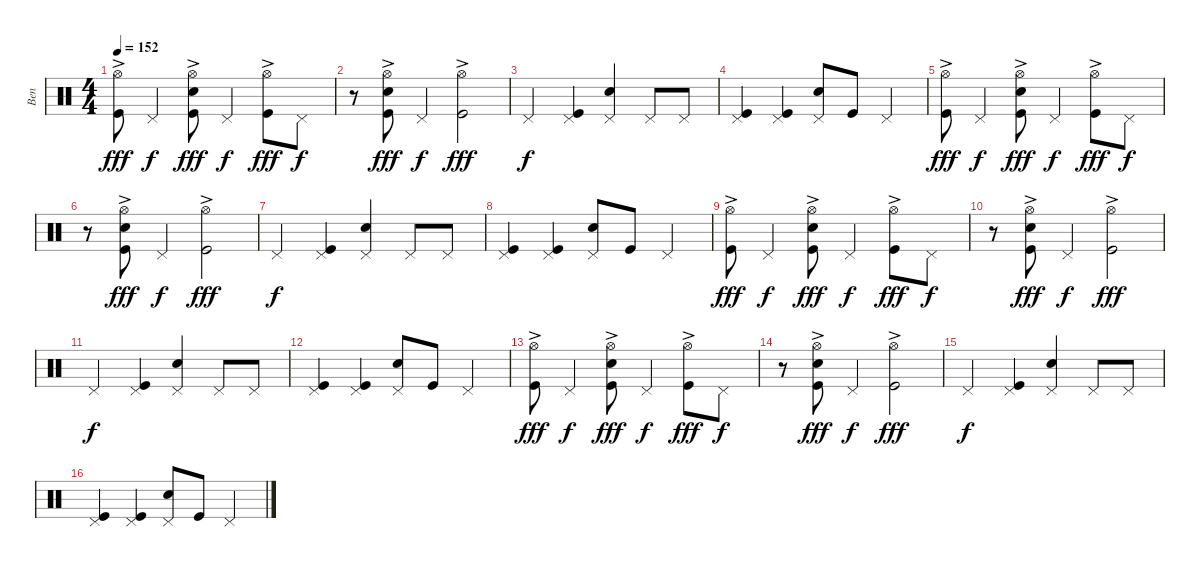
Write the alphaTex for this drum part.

\track ("Ben" "Ben") {instrument percussion}
\staff {score}
\articulation defaults
\ts (4 4)
\tempo 152
\clef neutral
\ks c
("Hi-Hat (open)" "Kick (hit)"{ac}).8{dy fff} "Pedal Hi-Hat (hit)".4{dy f} ("Hi-Hat (open)" "Electric Snare (hit)" "Kick (hit)"{ac}).8{dy fff} "Pedal Hi-Hat (hit)".4{dy f} ("Hi-Hat (open)" "Kick (hit)"{ac}).8{dy fff} "Pedal Hi-Hat (hit)".8{dy f} |
r.8 ("Hi-Hat (open)" "Electric Snare (hit)" "Kick (hit)"{ac}).8{dy fff} "Pedal Hi-Hat (hit)".4{dy f} ("Hi-Hat (open)" "Kick (hit)"{ac}).2{dy fff} |
"Pedal Hi-Hat (hit)".4{dy f} ("Pedal Hi-Hat (hit)" "Kick (hit)").4 ("Pedal Hi-Hat (hit)" "Electric Snare (hit)").4 "Pedal Hi-Hat (hit)".8 "Pedal Hi-Hat (hit)".8 |
("Pedal Hi-Hat (hit)" "Kick (hit)").4 ("Pedal Hi-Hat (hit)" "Kick (hit)").4 ("Pedal Hi-Hat (hit)" "Electric Snare (hit)").8 "Kick (hit)".8 "Pedal Hi-Hat (hit)".4 |
("Hi-Hat (open)" "Kick (hit)"{ac}).8{dy fff} "Pedal Hi-Hat (hit)".4{dy f} ("Hi-Hat (open)" "Electric Snare (hit)" "Kick (hit)"{ac}).8{dy fff} "Pedal Hi-Hat (hit)".4{dy f} ("Hi-Hat (open)" "Kick (hit)"{ac}).8{dy fff} "Pedal Hi-Hat (hit)".8{dy f} |
r.8 ("Hi-Hat (open)" "Electric Snare (hit)" "Kick (hit)"{ac}).8{dy fff} "Pedal Hi-Hat (hit)".4{dy f} ("Hi-Hat (open)" "Kick (hit)"{ac}).2{dy fff} |
"Pedal Hi-Hat (hit)".4{dy f} ("Pedal Hi-Hat (hit)" "Kick (hit)").4 ("Pedal Hi-Hat (hit)" "Electric Snare (hit)").4 "Pedal Hi-Hat (hit)".8 "Pedal Hi-Hat (hit)".8 |
("Pedal Hi-Hat (hit)" "Kick (hit)").4 ("Pedal Hi-Hat (hit)" "Kick (hit)").4 ("Pedal Hi-Hat (hit)" "Electric Snare (hit)").8 "Kick (hit)".8 "Pedal Hi-Hat (hit)".4 |
("Hi-Hat (open)" "Kick (hit)"{ac}).8{dy fff} "Pedal Hi-Hat (hit)".4{dy f} ("Hi-Hat (open)" "Electric Snare (hit)" "Kick (hit)"{ac}).8{dy fff} "Pedal Hi-Hat (hit)".4{dy f} ("Hi-Hat (open)" "Kick (hit)"{ac}).8{dy fff} "Pedal Hi-Hat (hit)".8{dy f} |
r.8 ("Hi-Hat (open)" "Electric Snare (hit)" "Kick (hit)"{ac}).8{dy fff} "Pedal Hi-Hat (hit)".4{dy f} ("Hi-Hat (open)" "Kick (hit)"{ac}).2{dy fff} |
"Pedal Hi-Hat (hit)".4{dy f} ("Pedal Hi-Hat (hit)" "Kick (hit)").4 ("Pedal Hi-Hat (hit)" "Electric Snare (hit)").4 "Pedal Hi-Hat (hit)".8 "Pedal Hi-Hat (hit)".8 |
("Pedal Hi-Hat (hit)" "Kick (hit)").4 ("Pedal Hi-Hat (hit)" "Kick (hit)").4 ("Pedal Hi-Hat (hit)" "Electric Snare (hit)").8 "Kick (hit)".8 "Pedal Hi-Hat (hit)".4 |
("Hi-Hat (open)" "Kick (hit)"{ac}).8{dy fff} "Pedal Hi-Hat (hit)".4{dy f} ("Hi-Hat (open)" "Electric Snare (hit)" "Kick (hit)"{ac}).8{dy fff} "Pedal Hi-Hat (hit)".4{dy f} ("Hi-Hat (open)" "Kick (hit)"{ac}).8{dy fff} "Pedal Hi-Hat (hit)".8{dy f} |
r.8 ("Hi-Hat (open)" "Electric Snare (hit)" "Kick (hit)"{ac}).8{dy fff} "Pedal Hi-Hat (hit)".4{dy f} ("Hi-Hat (open)" "Kick (hit)"{ac}).2{dy fff} |
"Pedal Hi-Hat (hit)".4{dy f} ("Pedal Hi-Hat (hit)" "Kick (hit)").4 ("Pedal Hi-Hat (hit)" "Electric Snare (hit)").4 "Pedal Hi-Hat (hit)".8 "Pedal Hi-Hat (hit)".8 |
("Pedal Hi-Hat (hit)" "Kick (hit)").4 ("Pedal Hi-Hat (hit)" "Kick (hit)").4 ("Pedal Hi-Hat (hit)" "Electric Snare (hit)").8 "Kick (hit)".8 "Pedal Hi-Hat (hit)".4
